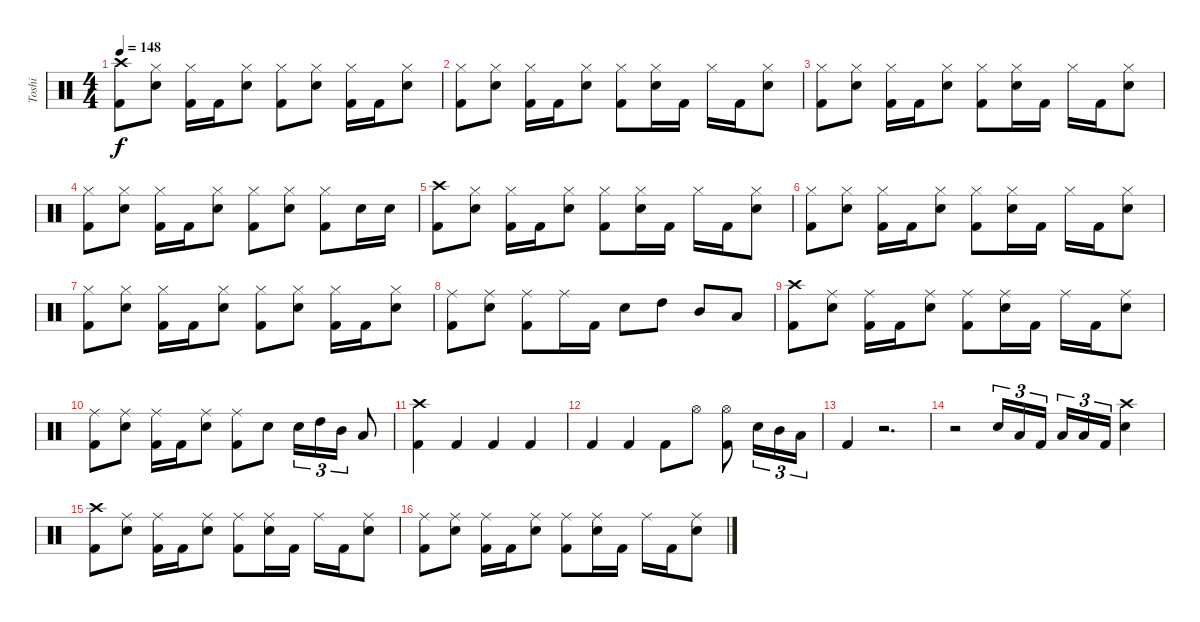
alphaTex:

\track ("Toshi" "Toshi") {instrument percussion}
\staff {score}
\articulation defaults
\ts (4 4)
\tempo 148
\clef neutral
\ks c
("Crash high (hit)" "Kick (hit) 2").8{dy f} ("Hi-Hat (closed)" "Snare (hit) 2").8 ("Hi-Hat (closed)" "Kick (hit) 2").16 "Kick (hit) 2".16 ("Hi-Hat (closed)" "Snare (hit) 2").8 ("Hi-Hat (closed)" "Kick (hit) 2").8 ("Hi-Hat (closed)" "Snare (hit) 2").8 ("Hi-Hat (closed)" "Kick (hit) 2").16 "Kick (hit) 2".16 ("Hi-Hat (closed)" "Snare (hit) 2").8 |
("Hi-Hat (closed)" "Kick (hit) 2").8 ("Hi-Hat (closed)" "Snare (hit) 2").8 ("Hi-Hat (closed)" "Kick (hit) 2").16 "Kick (hit) 2".16 ("Hi-Hat (closed)" "Snare (hit) 2").8 ("Hi-Hat (closed)" "Kick (hit) 2").8 ("Hi-Hat (closed)" "Snare (hit) 2").16 "Kick (hit) 2".16 "Hi-Hat (closed)".16 "Kick (hit) 2".16 ("Hi-Hat (closed)" "Snare (hit) 2").8 |
("Hi-Hat (closed)" "Kick (hit) 2").8 ("Hi-Hat (closed)" "Snare (hit) 2").8 ("Hi-Hat (closed)" "Kick (hit) 2").16 "Kick (hit) 2".16 ("Hi-Hat (closed)" "Snare (hit) 2").8 ("Hi-Hat (closed)" "Kick (hit) 2").8 ("Hi-Hat (closed)" "Snare (hit) 2").16 "Kick (hit) 2".16 "Hi-Hat (closed)".16 "Kick (hit) 2".16 ("Hi-Hat (closed)" "Snare (hit) 2").8 |
("Hi-Hat (closed)" "Kick (hit) 2").8 ("Hi-Hat (closed)" "Snare (hit) 2").8 ("Hi-Hat (closed)" "Kick (hit) 2").16 "Kick (hit) 2".16 ("Hi-Hat (closed)" "Snare (hit) 2").8 ("Hi-Hat (closed)" "Kick (hit) 2").8 ("Hi-Hat (closed)" "Snare (hit) 2").8 ("Hi-Hat (closed)" "Kick (hit) 2").8 "Snare (hit) 2".16 "Snare (hit) 2".16 |
("Crash high (hit)" "Kick (hit) 2").8 ("Hi-Hat (closed)" "Snare (hit) 2").8 ("Hi-Hat (closed)" "Kick (hit) 2").16 "Kick (hit) 2".16 ("Hi-Hat (closed)" "Snare (hit) 2").8 ("Hi-Hat (closed)" "Kick (hit) 2").8 ("Hi-Hat (closed)" "Snare (hit) 2").16 "Kick (hit) 2".16 "Hi-Hat (closed)".16 "Kick (hit) 2".16 ("Hi-Hat (closed)" "Snare (hit) 2").8 |
("Hi-Hat (closed)" "Kick (hit) 2").8 ("Hi-Hat (closed)" "Snare (hit) 2").8 ("Hi-Hat (closed)" "Kick (hit) 2").16 "Kick (hit) 2".16 ("Hi-Hat (closed)" "Snare (hit) 2").8 ("Hi-Hat (closed)" "Kick (hit) 2").8 ("Hi-Hat (closed)" "Snare (hit) 2").16 "Kick (hit) 2".16 "Hi-Hat (closed)".16 "Kick (hit) 2".16 ("Hi-Hat (closed)" "Snare (hit) 2").8 |
("Hi-Hat (closed)" "Kick (hit) 2").8 ("Hi-Hat (closed)" "Snare (hit) 2").8 ("Hi-Hat (closed)" "Kick (hit) 2").16 "Kick (hit) 2".16 ("Hi-Hat (closed)" "Snare (hit) 2").8 ("Hi-Hat (closed)" "Kick (hit) 2").8 ("Hi-Hat (closed)" "Snare (hit) 2").8 ("Hi-Hat (closed)" "Kick (hit) 2").16 "Kick (hit) 2".16 ("Hi-Hat (closed)" "Snare (hit) 2").8 |
("Ride (middle)" "Kick (hit) 2").8 ("Ride (middle)" "Snare (hit) 2").8 ("Ride (middle)" "Kick (hit) 2").8 "Ride (middle)".16 "Kick (hit) 2".16 "Snare (hit) 2".8 "High Tom (hit)".8 "Mid Tom (hit)".8 "Low Tom (hit)".8 |
("Crash high (hit)" "Kick (hit) 2").8 ("Ride (middle)" "Snare (hit) 2").8 ("Ride (middle)" "Kick (hit) 2").16 "Kick (hit) 2".16 ("Ride (middle)" "Snare (hit) 2").8 ("Ride (middle)" "Kick (hit) 2").8 ("Ride (middle)" "Snare (hit) 2").16 "Kick (hit) 2".16 "Ride (middle)".16 "Kick (hit) 2".16 ("Ride (middle)" "Snare (hit) 2").8 |
("Ride (middle)" "Kick (hit) 2").8 ("Ride (middle)" "Snare (hit) 2").8 ("Ride (middle)" "Kick (hit) 2").16 "Kick (hit) 2".16 ("Ride (middle)" "Snare (hit) 2").8 ("Ride (middle)" "Kick (hit) 2").8 "Snare (hit) 2".8 "Snare (hit) 2".16{tu (3 2)} "High Tom (hit)".16{tu (3 2)} "Mid Tom (hit)".16{tu (3 2)} "Low Tom (hit)".8 |
("Crash high (hit)" "Kick (hit) 2").4 "Kick (hit) 2".4 "Kick (hit) 2".4 "Kick (hit) 2".4 |
"Kick (hit) 2".4 "Kick (hit) 2".4 "Kick (hit) 2".8 "Hi-Hat (open)".8 ("Hi-Hat (open)" "Kick (hit) 2").8 "Snare (hit) 2".16{tu (3 2)} "Mid Tom (hit)".16{tu (3 2)} "Low Tom (hit)".16{tu (3 2)} |
"Kick (hit) 2".4 r.2{d} |
r.2 "Snare (hit) 2".16{tu (3 2)} "Low Floor Tom (hit)".16{tu (3 2)} "Kick (hit) 2".16{tu (3 2)} "Low Tom (hit)".16{tu (3 2)} "Low Floor Tom (hit)".16{tu (3 2)} "Kick (hit) 2".16{tu (3 2)} ("Crash high (hit)" "Snare (hit) 2").4 |
("Crash high (hit)" "Kick (hit) 2").8 ("Ride (middle)" "Snare (hit) 2").8 ("Ride (middle)" "Kick (hit) 2").16 "Kick (hit) 2".16 ("Ride (middle)" "Snare (hit) 2").8 ("Ride (middle)" "Kick (hit) 2").8 ("Ride (middle)" "Snare (hit) 2").16 "Kick (hit) 2".16 "Ride (middle)".16 "Kick (hit) 2".16 ("Ride (middle)" "Snare (hit) 2").8 |
("Ride (middle)" "Kick (hit) 2").8 ("Ride (middle)" "Snare (hit) 2").8 ("Ride (middle)" "Kick (hit) 2").16 "Kick (hit) 2".16 ("Ride (middle)" "Snare (hit) 2").8 ("Ride (middle)" "Kick (hit) 2").8 ("Ride (middle)" "Snare (hit) 2").16 "Kick (hit) 2".16 "Ride (middle)".16 "Kick (hit) 2".16 ("Ride (middle)" "Snare (hit) 2").8
